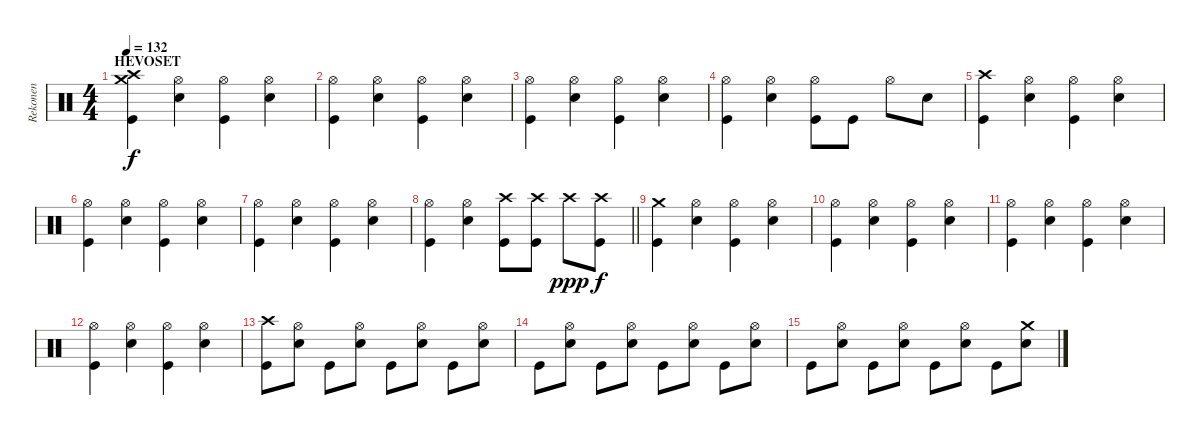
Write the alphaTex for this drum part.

\track ("Rekonen" "Rekonen") {instrument percussion}
\staff {score}
\articulation defaults
\ts (4 4)
\section ("" "HEVOSET")
\tempo 132
\clef neutral
\ks c
("Kick (hit)" "Crash high (hit)" "Crash medium (hit)").4{dy f} ("Electric Snare (hit)" "Hi-Hat (open)").4 ("Kick (hit)" "Hi-Hat (open)").4 ("Electric Snare (hit)" "Hi-Hat (open)").4 |
("Kick (hit)" "Hi-Hat (open)").4 ("Electric Snare (hit)" "Hi-Hat (open)").4 ("Kick (hit)" "Hi-Hat (open)").4 ("Electric Snare (hit)" "Hi-Hat (open)").4 |
("Kick (hit)" "Hi-Hat (open)").4 ("Electric Snare (hit)" "Hi-Hat (open)").4 ("Kick (hit)" "Hi-Hat (open)").4 ("Electric Snare (hit)" "Hi-Hat (open)").4 |
("Kick (hit)" "Hi-Hat (open)").4 ("Electric Snare (hit)" "Hi-Hat (open)").4 ("Kick (hit)" "Hi-Hat (open)").8 "Kick (hit)".8 "Hi-Hat (open)".8 "Electric Snare (hit)".8 |
("Kick (hit)" "Crash high (hit)").4 ("Electric Snare (hit)" "Hi-Hat (open)").4 ("Kick (hit)" "Hi-Hat (open)").4 ("Electric Snare (hit)" "Hi-Hat (open)").4 |
("Kick (hit)" "Hi-Hat (open)").4 ("Electric Snare (hit)" "Hi-Hat (open)").4 ("Kick (hit)" "Hi-Hat (open)").4 ("Electric Snare (hit)" "Hi-Hat (open)").4 |
("Kick (hit)" "Hi-Hat (open)").4 ("Electric Snare (hit)" "Hi-Hat (open)").4 ("Kick (hit)" "Hi-Hat (open)").4 ("Electric Snare (hit)" "Hi-Hat (open)").4 |
\barLineRight lightlight
("Kick (hit)" "Hi-Hat (open)").4 ("Electric Snare (hit)" "Hi-Hat (open)").4 ("Kick (hit)" "Crash high (hit)").8 ("Kick (hit)" "Crash high (hit)").8 "Crash high (hit)".8{dy ppp} ("Kick (hit)" "Crash high (hit)").8{dy f} |
("Kick (hit)" "Crash medium (hit)").4 ("Electric Snare (hit)" "Hi-Hat (open)").4 ("Kick (hit)" "Hi-Hat (open)").4 ("Electric Snare (hit)" "Hi-Hat (open)").4 |
("Kick (hit)" "Hi-Hat (open)").4 ("Electric Snare (hit)" "Hi-Hat (open)").4 ("Kick (hit)" "Hi-Hat (open)").4 ("Electric Snare (hit)" "Hi-Hat (open)").4 |
("Kick (hit)" "Hi-Hat (open)").4 ("Electric Snare (hit)" "Hi-Hat (open)").4 ("Kick (hit)" "Hi-Hat (open)").4 ("Electric Snare (hit)" "Hi-Hat (open)").4 |
("Kick (hit)" "Hi-Hat (open)").4 ("Electric Snare (hit)" "Hi-Hat (open)").4 ("Kick (hit)" "Hi-Hat (open)").4 ("Electric Snare (hit)" "Hi-Hat (open)").4 |
("Kick (hit)" "Crash high (hit)").8 ("Electric Snare (hit)" "Hi-Hat (open)").8 "Kick (hit)".8 ("Electric Snare (hit)" "Hi-Hat (open)").8 "Kick (hit)".8 ("Electric Snare (hit)" "Hi-Hat (open)").8 "Kick (hit)".8 ("Electric Snare (hit)" "Hi-Hat (open)").8 |
"Kick (hit)".8 ("Electric Snare (hit)" "Hi-Hat (open)").8 "Kick (hit)".8 ("Electric Snare (hit)" "Hi-Hat (open)").8 "Kick (hit)".8 ("Electric Snare (hit)" "Hi-Hat (open)").8 "Kick (hit)".8 ("Electric Snare (hit)" "Hi-Hat (open)").8 |
"Kick (hit)".8 ("Electric Snare (hit)" "Hi-Hat (open)").8 "Kick (hit)".8 ("Electric Snare (hit)" "Hi-Hat (open)").8 "Kick (hit)".8 ("Electric Snare (hit)" "Hi-Hat (open)").8 "Kick (hit)".8 ("Electric Snare (hit)" "Crash medium (hit)").8
